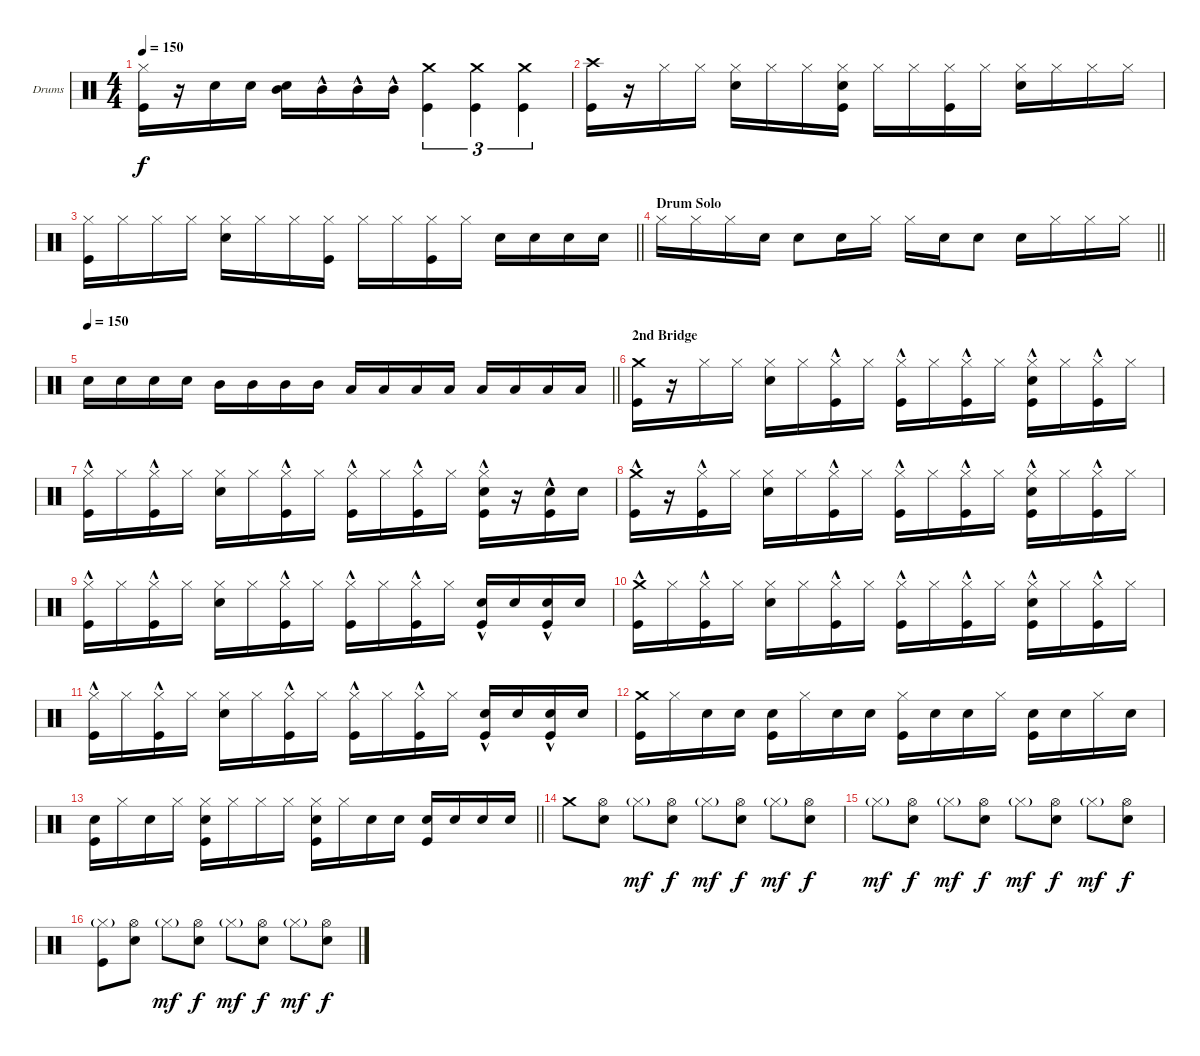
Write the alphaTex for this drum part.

\bracketExtendMode groupsimilarinstruments
\firstSystemTrackNameOrientation horizontal
\otherSystemsTrackNameOrientation horizontal
\track ("Drumkit" "Drums") {instrument percussion}
\staff {score}
\articulation defaults
\ts (4 4)
\tempo 150
\clef neutral
\ks c
("Hi-Hat (closed)" "Kick (hit)").16{dy f} r.16 "Snare (hit) 2".16 "Snare (hit) 2".16 ("Mid Tom (hit)" "Snare (hit) 2").16 "Mid Tom (hit)"{hac}.16 "Mid Tom (hit)"{hac}.16 "Mid Tom (hit)"{hac}.16 ("Kick (hit)" "Crash medium (hit)").4{tu (3 2)} ("Kick (hit)" "Crash medium (hit)").4{tu (3 2)} ("Kick (hit)" "Crash medium (hit)").4{tu (3 2)} |
("Crash high (hit)" "Kick (hit)").16 r.16 "Hi-Hat (closed)".16 "Hi-Hat (closed)".16 ("Hi-Hat (closed)" "Snare (hit) 2").16 "Hi-Hat (closed)".16 "Hi-Hat (closed)".16 ("Hi-Hat (closed)" "Snare (hit) 2" "Kick (hit)").16 "Hi-Hat (closed)".16 "Hi-Hat (closed)".16 ("Hi-Hat (closed)" "Kick (hit)").16 "Hi-Hat (closed)".16 ("Hi-Hat (closed)" "Snare (hit) 2").16 "Hi-Hat (closed)".16 "Hi-Hat (closed)".16 "Hi-Hat (closed)".16 |
\barLineRight lightlight
("Hi-Hat (closed)" "Kick (hit)").16 "Hi-Hat (closed)".16 "Hi-Hat (closed)".16 "Hi-Hat (closed)".16 ("Hi-Hat (closed)" "Snare (hit) 2").16 "Hi-Hat (closed)".16 "Hi-Hat (closed)".16 ("Hi-Hat (closed)" "Kick (hit)").16 "Hi-Hat (closed)".16 "Hi-Hat (closed)".16 ("Hi-Hat (closed)" "Kick (hit)").16 "Hi-Hat (closed)".16 "Snare (hit) 2".16 "Snare (hit) 2".16 "Snare (hit) 2".16 "Snare (hit) 2".16 |
\section ("" "Drum Solo")
\barLineRight lightlight "Hi-Hat (closed)".16 "Hi-Hat (closed)".16 "Hi-Hat (closed)".16 "Snare (hit) 2".16 "Snare (hit) 2".8 "Snare (hit) 2".16 "Hi-Hat (closed)".16 "Hi-Hat (closed)".16 "Snare (hit) 2".16 "Snare (hit) 2".8 "Snare (hit) 2".16 "Hi-Hat (closed)".16 "Hi-Hat (closed)".16 "Hi-Hat (closed)".16
|
\tempo 150
\barLineRight lightlight "Snare (hit) 2".16 "Snare (hit) 2".16 "Snare (hit) 2".16 "Snare (hit) 2".16 "Mid Tom (hit)".16 "Mid Tom (hit)".16 "Mid Tom (hit)".16 "Mid Tom (hit)".16 "Low Tom (hit)".16 "Low Tom (hit)".16 "Low Tom (hit)".16 "Low Tom (hit)".16 "Low Tom (hit)".16 "Low Tom (hit)".16 "Low Tom (hit)".16 "Low Tom (hit)".16
|
\section ("" "2nd Bridge")
("Crash medium (hit)" "Kick (hit)").16 r.16 "Hi-Hat (closed)".16 "Hi-Hat (closed)".16 ("Hi-Hat (closed)" "Snare (hit) 2").16 "Hi-Hat (closed)".16 ("Hi-Hat (closed)" "Kick (hit)"{hac}).16 "Hi-Hat (closed)".16 ("Hi-Hat (closed)" "Kick (hit)"{hac}).16 "Hi-Hat (closed)".16 ("Hi-Hat (closed)" "Kick (hit)"{hac}).16 "Hi-Hat (closed)".16 ("Hi-Hat (closed)" "Snare (hit) 2" "Kick (hit)"{hac}).16 "Hi-Hat (closed)".16 ("Hi-Hat (closed)" "Kick (hit)"{hac}).16 "Hi-Hat (closed)".16 |
("Hi-Hat (closed)" "Kick (hit)"{hac}).16 "Hi-Hat (closed)".16 ("Hi-Hat (closed)" "Kick (hit)"{hac}).16 "Hi-Hat (closed)".16 ("Hi-Hat (closed)" "Snare (hit) 2").16 "Hi-Hat (closed)".16 ("Hi-Hat (closed)" "Kick (hit)"{hac}).16 "Hi-Hat (closed)".16 ("Hi-Hat (closed)" "Kick (hit)"{hac}).16 "Hi-Hat (closed)".16 ("Hi-Hat (closed)" "Kick (hit)"{hac}).16 "Hi-Hat (closed)".16 ("Hi-Hat (closed)" "Snare (hit) 2" "Kick (hit)"{hac}).16 r.16 ("Snare (hit) 2" "Kick (hit)"{hac}).16 "Snare (hit) 2".16 |
("Crash medium (hit)" "Kick (hit)"{hac}).16 r.16 ("Hi-Hat (closed)" "Kick (hit)"{hac}).16 "Hi-Hat (closed)".16 ("Hi-Hat (closed)" "Snare (hit) 2").16 "Hi-Hat (closed)".16 ("Hi-Hat (closed)" "Kick (hit)"{hac}).16 "Hi-Hat (closed)".16 ("Hi-Hat (closed)" "Kick (hit)"{hac}).16 "Hi-Hat (closed)".16 ("Hi-Hat (closed)" "Kick (hit)"{hac}).16 "Hi-Hat (closed)".16 ("Hi-Hat (closed)" "Snare (hit) 2" "Kick (hit)"{hac}).16 "Hi-Hat (closed)".16 ("Hi-Hat (closed)" "Kick (hit)"{hac}).16 "Hi-Hat (closed)".16 |
("Hi-Hat (closed)" "Kick (hit)"{hac}).16 "Hi-Hat (closed)".16 ("Hi-Hat (closed)" "Kick (hit)"{hac}).16 "Hi-Hat (closed)".16 ("Hi-Hat (closed)" "Snare (hit) 2").16 "Hi-Hat (closed)".16 ("Hi-Hat (closed)" "Kick (hit)"{hac}).16 "Hi-Hat (closed)".16 ("Hi-Hat (closed)" "Kick (hit)"{hac}).16 "Hi-Hat (closed)".16 ("Hi-Hat (closed)" "Kick (hit)"{hac}).16 "Hi-Hat (closed)".16 ("Snare (hit) 2" "Kick (hit)"{hac}).16 "Snare (hit) 2".16 ("Snare (hit) 2" "Kick (hit)"{hac}).16 "Snare (hit) 2".16 |
("Crash medium (hit)" "Kick (hit)"{hac}).16 "Hi-Hat (closed)".16 ("Hi-Hat (closed)" "Kick (hit)"{hac}).16 "Hi-Hat (closed)".16 ("Hi-Hat (closed)" "Snare (hit) 2").16 "Hi-Hat (closed)".16 ("Hi-Hat (closed)" "Kick (hit)"{hac}).16 "Hi-Hat (closed)".16 ("Hi-Hat (closed)" "Kick (hit)"{hac}).16 "Hi-Hat (closed)".16 ("Hi-Hat (closed)" "Kick (hit)"{hac}).16 "Hi-Hat (closed)".16 ("Hi-Hat (closed)" "Snare (hit) 2" "Kick (hit)"{hac}).16 "Hi-Hat (closed)".16 ("Hi-Hat (closed)" "Kick (hit)"{hac}).16 "Hi-Hat (closed)".16 |
("Hi-Hat (closed)" "Kick (hit)"{hac}).16 "Hi-Hat (closed)".16 ("Hi-Hat (closed)" "Kick (hit)"{hac}).16 "Hi-Hat (closed)".16 ("Hi-Hat (closed)" "Snare (hit) 2").16 "Hi-Hat (closed)".16 ("Hi-Hat (closed)" "Kick (hit)"{hac}).16 "Hi-Hat (closed)".16 ("Hi-Hat (closed)" "Kick (hit)"{hac}).16 "Hi-Hat (closed)".16 ("Hi-Hat (closed)" "Kick (hit)"{hac}).16 "Hi-Hat (closed)".16 ("Snare (hit) 2" "Kick (hit)"{hac}).16 "Snare (hit) 2".16 ("Snare (hit) 2" "Kick (hit)"{hac}).16 "Snare (hit) 2".16 |
("Crash medium (hit)" "Kick (hit)").16 "Hi-Hat (closed)".16 "Snare (hit) 2".16 "Snare (hit) 2".16 ("Snare (hit) 2" "Kick (hit)").16 "Hi-Hat (closed)".16 "Snare (hit) 2".16 "Snare (hit) 2".16 ("Hi-Hat (closed)" "Kick (hit)").16 "Snare (hit) 2".16 "Snare (hit) 2".16 "Hi-Hat (closed)".16 ("Snare (hit) 2" "Kick (hit)").16 "Snare (hit) 2".16 "Hi-Hat (closed)".16 "Snare (hit) 2".16 |
\barLineRight lightlight
("Snare (hit) 2" "Kick (hit)").16 "Hi-Hat (closed)".16 "Snare (hit) 2".16 "Hi-Hat (closed)".16 ("Hi-Hat (closed)" "Snare (hit) 2" "Kick (hit)").16 "Hi-Hat (closed)".16 "Hi-Hat (closed)".16 "Hi-Hat (closed)".16 ("Hi-Hat (closed)" "Snare (hit) 2" "Kick (hit)").16 "Hi-Hat (closed)".16 "Snare (hit) 2".16 "Snare (hit) 2".16 ("Snare (hit) 2" "Kick (hit)").16 "Snare (hit) 2".16 "Snare (hit) 2".16 "Snare (hit) 2".16 |
"Crash medium (hit)".8 ("Hi-Hat (open)" "Snare (hit) 2").8 "Hi-Hat (closed)"{g}.8{dy mf} ("Hi-Hat (open)" "Snare (hit) 2").8{dy f} "Hi-Hat (closed)"{g}.8{dy mf} ("Hi-Hat (open)" "Snare (hit) 2").8{dy f} "Hi-Hat (closed)"{g}.8{dy mf} ("Hi-Hat (open)" "Snare (hit) 2").8{dy f} |
"Hi-Hat (closed)"{g}.8{dy mf} ("Hi-Hat (open)" "Snare (hit) 2").8{dy f} "Hi-Hat (closed)"{g}.8{dy mf} ("Hi-Hat (open)" "Snare (hit) 2").8{dy f} "Hi-Hat (closed)"{g}.8{dy mf} ("Hi-Hat (open)" "Snare (hit) 2").8{dy f} "Hi-Hat (closed)"{g}.8{dy mf} ("Hi-Hat (open)" "Snare (hit) 2").8{dy f} |
("Hi-Hat (closed)"{g} "Kick (hit)").8 ("Hi-Hat (open)" "Snare (hit) 2").8 "Hi-Hat (closed)"{g}.8{dy mf} ("Hi-Hat (open)" "Snare (hit) 2").8{dy f} "Hi-Hat (closed)"{g}.8{dy mf} ("Hi-Hat (open)" "Snare (hit) 2").8{dy f} "Hi-Hat (closed)"{g}.8{dy mf} ("Hi-Hat (open)" "Snare (hit) 2").8{dy f}
